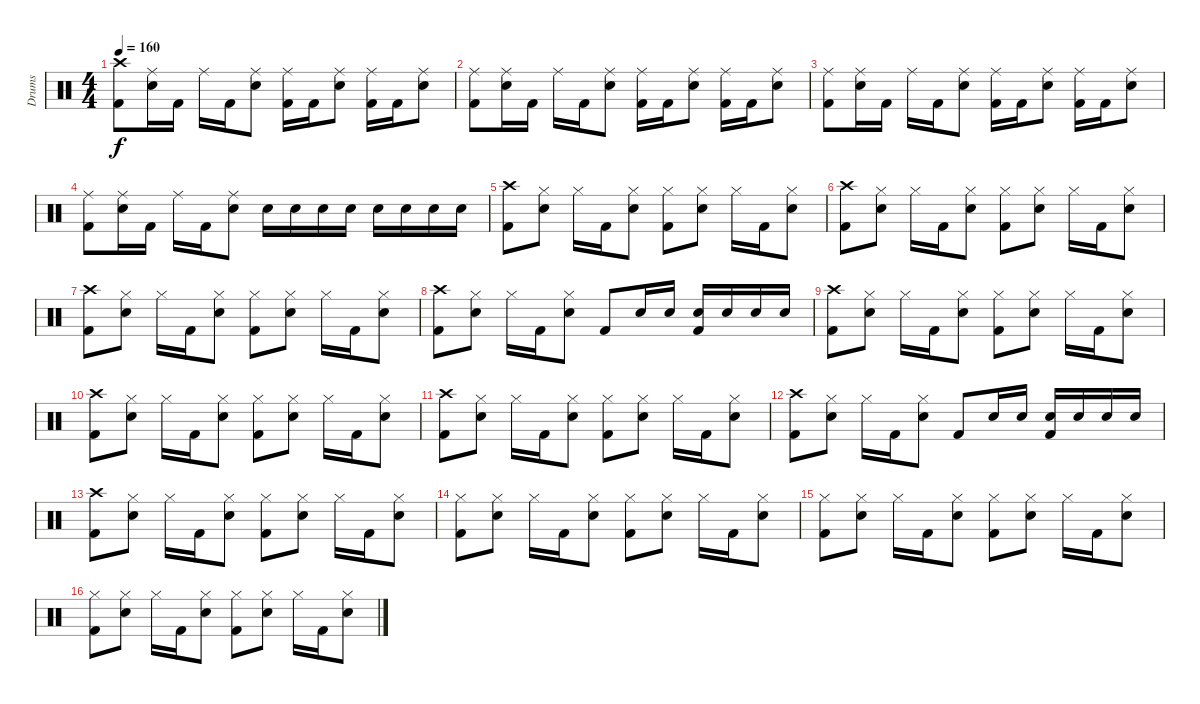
\track ("Drums" "Drums") {instrument percussion}
\staff {score}
\articulation defaults
\ts (4 4)
\tempo 160
\clef neutral
\ks c
("Crash high (hit)" "Kick (hit) 2").8{dy f} ("Ride (middle)" "Snare (hit) 2").16 "Kick (hit) 2".16 "Ride (middle)".16 "Kick (hit) 2".16 ("Ride (middle)" "Snare (hit) 2").8 ("Ride (middle)" "Kick (hit) 2").16 "Kick (hit) 2".16 ("Ride (middle)" "Snare (hit) 2").8 ("Ride (middle)" "Kick (hit) 2").16 "Kick (hit) 2".16 ("Ride (middle)" "Snare (hit) 2").8 |
("Ride (middle)" "Kick (hit) 2").8 ("Ride (middle)" "Snare (hit) 2").16 "Kick (hit) 2".16 "Ride (middle)".16 "Kick (hit) 2".16 ("Ride (middle)" "Snare (hit) 2").8 ("Ride (middle)" "Kick (hit) 2").16 "Kick (hit) 2".16 ("Ride (middle)" "Snare (hit) 2").8 ("Ride (middle)" "Kick (hit) 2").16 "Kick (hit) 2".16 ("Ride (middle)" "Snare (hit) 2").8 |
("Ride (middle)" "Kick (hit) 2").8 ("Ride (middle)" "Snare (hit) 2").16 "Kick (hit) 2".16 "Ride (middle)".16 "Kick (hit) 2".16 ("Ride (middle)" "Snare (hit) 2").8 ("Ride (middle)" "Kick (hit) 2").16 "Kick (hit) 2".16 ("Ride (middle)" "Snare (hit) 2").8 ("Ride (middle)" "Kick (hit) 2").16 "Kick (hit) 2".16 ("Ride (middle)" "Snare (hit) 2").8 |
("Ride (middle)" "Kick (hit) 2").8 ("Ride (middle)" "Snare (hit) 2").16 "Kick (hit) 2".16 "Ride (middle)".16 "Kick (hit) 2".16 ("Ride (middle)" "Snare (hit) 2").8 "Snare (hit) 2".16 "Snare (hit) 2".16 "Snare (hit) 2".16 "Snare (hit) 2".16 "Snare (hit) 2".16 "Snare (hit) 2".16 "Snare (hit) 2".16 "Snare (hit) 2".16 |
("Crash high (hit)" "Kick (hit) 2").8 ("Hi-Hat (closed)" "Snare (hit) 2").8 "Hi-Hat (closed)".16 "Kick (hit) 2".16 ("Hi-Hat (closed)" "Snare (hit) 2").8 ("Hi-Hat (closed)" "Kick (hit) 2").8 ("Hi-Hat (closed)" "Snare (hit) 2").8 "Hi-Hat (closed)".16 "Kick (hit) 2".16 ("Hi-Hat (closed)" "Snare (hit) 2").8 |
("Crash high (hit)" "Kick (hit) 2").8 ("Hi-Hat (closed)" "Snare (hit) 2").8 "Hi-Hat (closed)".16 "Kick (hit) 2".16 ("Hi-Hat (closed)" "Snare (hit) 2").8 ("Hi-Hat (closed)" "Kick (hit) 2").8 ("Hi-Hat (closed)" "Snare (hit) 2").8 "Hi-Hat (closed)".16 "Kick (hit) 2".16 ("Hi-Hat (closed)" "Snare (hit) 2").8 |
("Crash high (hit)" "Kick (hit) 2").8 ("Hi-Hat (closed)" "Snare (hit) 2").8 "Hi-Hat (closed)".16 "Kick (hit) 2".16 ("Hi-Hat (closed)" "Snare (hit) 2").8 ("Hi-Hat (closed)" "Kick (hit) 2").8 ("Hi-Hat (closed)" "Snare (hit) 2").8 "Hi-Hat (closed)".16 "Kick (hit) 2".16 ("Hi-Hat (closed)" "Snare (hit) 2").8 |
("Crash high (hit)" "Kick (hit) 2").8 ("Hi-Hat (closed)" "Snare (hit) 2").8 "Hi-Hat (closed)".16 "Kick (hit) 2".16 ("Hi-Hat (closed)" "Snare (hit) 2").8 "Kick (hit) 2".8 "Snare (hit) 2".16 "Snare (hit) 2".16 ("Snare (hit) 2" "Kick (hit) 2").16 "Snare (hit) 2".16 "Snare (hit) 2".16 "Snare (hit) 2".16 |
("Crash high (hit)" "Kick (hit) 2").8 ("Hi-Hat (closed)" "Snare (hit) 2").8 "Hi-Hat (closed)".16 "Kick (hit) 2".16 ("Hi-Hat (closed)" "Snare (hit) 2").8 ("Hi-Hat (closed)" "Kick (hit) 2").8 ("Hi-Hat (closed)" "Snare (hit) 2").8 "Hi-Hat (closed)".16 "Kick (hit) 2".16 ("Hi-Hat (closed)" "Snare (hit) 2").8 |
("Crash high (hit)" "Kick (hit) 2").8 ("Hi-Hat (closed)" "Snare (hit) 2").8 "Hi-Hat (closed)".16 "Kick (hit) 2".16 ("Hi-Hat (closed)" "Snare (hit) 2").8 ("Hi-Hat (closed)" "Kick (hit) 2").8 ("Hi-Hat (closed)" "Snare (hit) 2").8 "Hi-Hat (closed)".16 "Kick (hit) 2".16 ("Hi-Hat (closed)" "Snare (hit) 2").8 |
("Crash high (hit)" "Kick (hit) 2").8 ("Hi-Hat (closed)" "Snare (hit) 2").8 "Hi-Hat (closed)".16 "Kick (hit) 2".16 ("Hi-Hat (closed)" "Snare (hit) 2").8 ("Hi-Hat (closed)" "Kick (hit) 2").8 ("Hi-Hat (closed)" "Snare (hit) 2").8 "Hi-Hat (closed)".16 "Kick (hit) 2".16 ("Hi-Hat (closed)" "Snare (hit) 2").8 |
("Crash high (hit)" "Kick (hit) 2").8 ("Hi-Hat (closed)" "Snare (hit) 2").8 "Hi-Hat (closed)".16 "Kick (hit) 2".16 ("Hi-Hat (closed)" "Snare (hit) 2").8 "Kick (hit) 2".8 "Snare (hit) 2".16 "Snare (hit) 2".16 ("Snare (hit) 2" "Kick (hit) 2").16 "Snare (hit) 2".16 "Snare (hit) 2".16 "Snare (hit) 2".16 |
("Crash high (hit)" "Kick (hit) 2").8 ("Hi-Hat (closed)" "Snare (hit) 2").8 "Hi-Hat (closed)".16 "Kick (hit) 2".16 ("Hi-Hat (closed)" "Snare (hit) 2").8 ("Hi-Hat (closed)" "Kick (hit) 2").8 ("Hi-Hat (closed)" "Snare (hit) 2").8 "Hi-Hat (closed)".16 "Kick (hit) 2".16 ("Hi-Hat (closed)" "Snare (hit) 2").8 |
("Hi-Hat (closed)" "Kick (hit) 2").8 ("Hi-Hat (closed)" "Snare (hit) 2").8 "Hi-Hat (closed)".16 "Kick (hit) 2".16 ("Hi-Hat (closed)" "Snare (hit) 2").8 ("Hi-Hat (closed)" "Kick (hit) 2").8 ("Hi-Hat (closed)" "Snare (hit) 2").8 "Hi-Hat (closed)".16 "Kick (hit) 2".16 ("Hi-Hat (closed)" "Snare (hit) 2").8 |
("Hi-Hat (closed)" "Kick (hit) 2").8 ("Hi-Hat (closed)" "Snare (hit) 2").8 "Hi-Hat (closed)".16 "Kick (hit) 2".16 ("Hi-Hat (closed)" "Snare (hit) 2").8 ("Hi-Hat (closed)" "Kick (hit) 2").8 ("Hi-Hat (closed)" "Snare (hit) 2").8 "Hi-Hat (closed)".16 "Kick (hit) 2".16 ("Hi-Hat (closed)" "Snare (hit) 2").8 |
("Hi-Hat (closed)" "Kick (hit) 2").8 ("Hi-Hat (closed)" "Snare (hit) 2").8 "Hi-Hat (closed)".16 "Kick (hit) 2".16 ("Hi-Hat (closed)" "Snare (hit) 2").8 ("Hi-Hat (closed)" "Kick (hit) 2").8 ("Hi-Hat (closed)" "Snare (hit) 2").8 "Hi-Hat (closed)".16 "Kick (hit) 2".16 ("Hi-Hat (closed)" "Snare (hit) 2").8
